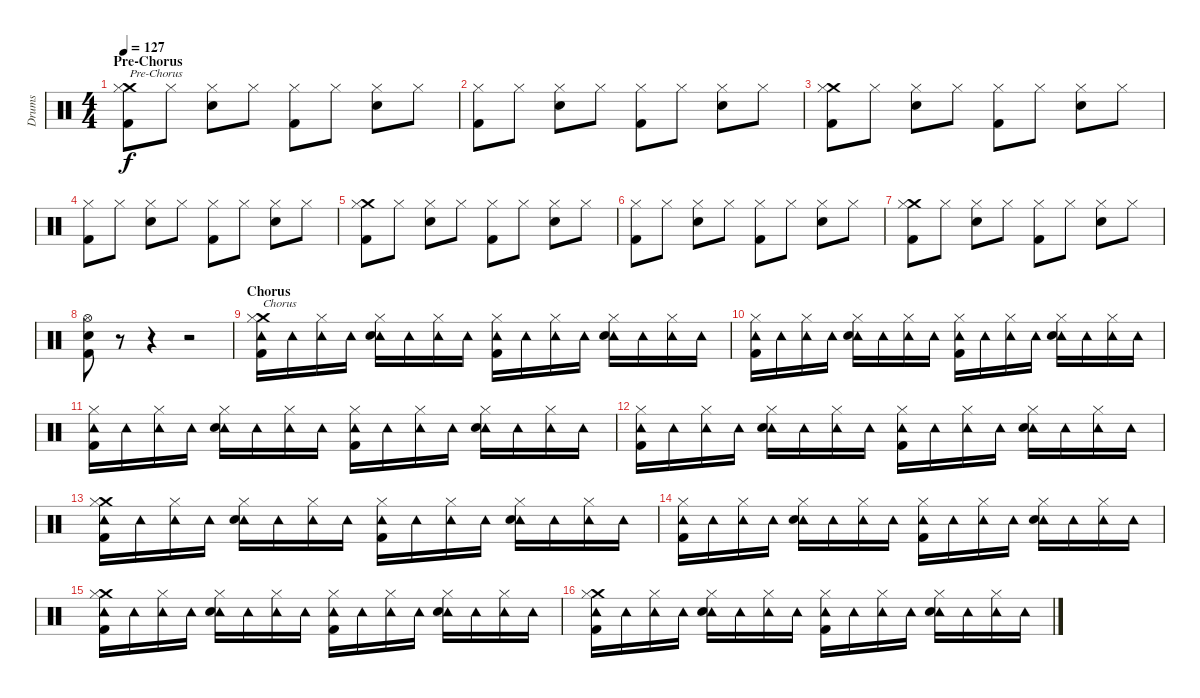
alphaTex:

\track ("Drums" "Drums") {instrument percussion}
\staff {score}
\articulation defaults
\ts (4 4)
\section ("" "Pre-Chorus")
\tempo 127
\clef neutral
\ks c
("Crash medium (hit)" "Hi-Hat (closed)" "Kick (hit) 2").8{txt "Pre-Chorus" dy f} "Hi-Hat (closed)".8 ("Hi-Hat (closed)" "Snare (hit) 2").8 "Hi-Hat (closed)".8 ("Hi-Hat (closed)" "Kick (hit) 2").8 "Hi-Hat (closed)".8 ("Hi-Hat (closed)" "Snare (hit) 2").8 "Hi-Hat (closed)".8 |
("Hi-Hat (closed)" "Kick (hit) 2").8 "Hi-Hat (closed)".8 ("Hi-Hat (closed)" "Snare (hit) 2").8 "Hi-Hat (closed)".8 ("Hi-Hat (closed)" "Kick (hit) 2").8 "Hi-Hat (closed)".8 ("Hi-Hat (closed)" "Snare (hit) 2").8 "Hi-Hat (closed)".8 |
("Crash medium (hit)" "Hi-Hat (closed)" "Kick (hit) 2").8 "Hi-Hat (closed)".8 ("Hi-Hat (closed)" "Snare (hit) 2").8 "Hi-Hat (closed)".8 ("Hi-Hat (closed)" "Kick (hit) 2").8 "Hi-Hat (closed)".8 ("Hi-Hat (closed)" "Snare (hit) 2").8 "Hi-Hat (closed)".8 |
("Hi-Hat (closed)" "Kick (hit) 2").8 "Hi-Hat (closed)".8 ("Hi-Hat (closed)" "Snare (hit) 2").8 "Hi-Hat (closed)".8 ("Hi-Hat (closed)" "Kick (hit) 2").8 "Hi-Hat (closed)".8 ("Hi-Hat (closed)" "Snare (hit) 2").8 "Hi-Hat (closed)".8 |
("Crash medium (hit)" "Hi-Hat (closed)" "Kick (hit) 2").8 "Hi-Hat (closed)".8 ("Hi-Hat (closed)" "Snare (hit) 2").8 "Hi-Hat (closed)".8 ("Hi-Hat (closed)" "Kick (hit) 2").8 "Hi-Hat (closed)".8 ("Hi-Hat (closed)" "Snare (hit) 2").8 "Hi-Hat (closed)".8 |
("Hi-Hat (closed)" "Kick (hit) 2").8 "Hi-Hat (closed)".8 ("Hi-Hat (closed)" "Snare (hit) 2").8 "Hi-Hat (closed)".8 ("Hi-Hat (closed)" "Kick (hit) 2").8 "Hi-Hat (closed)".8 ("Hi-Hat (closed)" "Snare (hit) 2").8 "Hi-Hat (closed)".8 |
("Crash medium (hit)" "Hi-Hat (closed)" "Kick (hit) 2").8 "Hi-Hat (closed)".8 ("Hi-Hat (closed)" "Snare (hit) 2").8 "Hi-Hat (closed)".8 ("Hi-Hat (closed)" "Kick (hit) 2").8 "Hi-Hat (closed)".8 ("Hi-Hat (closed)" "Snare (hit) 2").8 "Hi-Hat (closed)".8 |
("Hi-Hat (open)" "Snare (hit) 2" "Kick (hit) 2").8 r.8 r.4 r.2 |
\section ("" "Chorus")
("Crash medium (hit)" "Tambourine (hit)" "Hi-Hat (closed)" "Kick (hit) 2").16{txt "Chorus"} "Tambourine (hit)".16 ("Tambourine (hit)" "Hi-Hat (closed)").16 "Tambourine (hit)".16 ("Tambourine (hit)" "Hi-Hat (closed)" "Snare (hit) 2").16 "Tambourine (hit)".16 ("Tambourine (hit)" "Hi-Hat (closed)").16 "Tambourine (hit)".16 ("Tambourine (hit)" "Hi-Hat (closed)" "Kick (hit) 2").16 "Tambourine (hit)".16 ("Tambourine (hit)" "Hi-Hat (closed)").16 "Tambourine (hit)".16 ("Tambourine (hit)" "Hi-Hat (closed)" "Snare (hit) 2").16 "Tambourine (hit)".16 ("Tambourine (hit)" "Hi-Hat (closed)").16 "Tambourine (hit)".16 |
("Tambourine (hit)" "Hi-Hat (closed)" "Kick (hit) 2").16 "Tambourine (hit)".16 ("Tambourine (hit)" "Hi-Hat (closed)").16 "Tambourine (hit)".16 ("Tambourine (hit)" "Hi-Hat (closed)" "Snare (hit) 2").16 "Tambourine (hit)".16 ("Tambourine (hit)" "Hi-Hat (closed)").16 "Tambourine (hit)".16 ("Tambourine (hit)" "Hi-Hat (closed)" "Kick (hit) 2").16 "Tambourine (hit)".16 ("Tambourine (hit)" "Hi-Hat (closed)").16 "Tambourine (hit)".16 ("Tambourine (hit)" "Hi-Hat (closed)" "Snare (hit) 2").16 "Tambourine (hit)".16 ("Tambourine (hit)" "Hi-Hat (closed)").16 "Tambourine (hit)".16 |
("Tambourine (hit)" "Hi-Hat (closed)" "Kick (hit) 2").16 "Tambourine (hit)".16 ("Tambourine (hit)" "Hi-Hat (closed)").16 "Tambourine (hit)".16 ("Tambourine (hit)" "Hi-Hat (closed)" "Snare (hit) 2").16 "Tambourine (hit)".16 ("Tambourine (hit)" "Hi-Hat (closed)").16 "Tambourine (hit)".16 ("Tambourine (hit)" "Hi-Hat (closed)" "Kick (hit) 2").16 "Tambourine (hit)".16 ("Tambourine (hit)" "Hi-Hat (closed)").16 "Tambourine (hit)".16 ("Tambourine (hit)" "Hi-Hat (closed)" "Snare (hit) 2").16 "Tambourine (hit)".16 ("Tambourine (hit)" "Hi-Hat (closed)").16 "Tambourine (hit)".16 |
("Tambourine (hit)" "Hi-Hat (closed)" "Kick (hit) 2").16 "Tambourine (hit)".16 ("Tambourine (hit)" "Hi-Hat (closed)").16 "Tambourine (hit)".16 ("Tambourine (hit)" "Hi-Hat (closed)" "Snare (hit) 2").16 "Tambourine (hit)".16 ("Tambourine (hit)" "Hi-Hat (closed)").16 "Tambourine (hit)".16 ("Tambourine (hit)" "Hi-Hat (closed)" "Kick (hit) 2").16 "Tambourine (hit)".16 ("Tambourine (hit)" "Hi-Hat (closed)").16 "Tambourine (hit)".16 ("Tambourine (hit)" "Hi-Hat (closed)" "Snare (hit) 2").16 "Tambourine (hit)".16 ("Tambourine (hit)" "Hi-Hat (closed)").16 "Tambourine (hit)".16 |
("Crash medium (hit)" "Tambourine (hit)" "Hi-Hat (closed)" "Kick (hit) 2").16 "Tambourine (hit)".16 ("Tambourine (hit)" "Hi-Hat (closed)").16 "Tambourine (hit)".16 ("Tambourine (hit)" "Hi-Hat (closed)" "Snare (hit) 2").16 "Tambourine (hit)".16 ("Tambourine (hit)" "Hi-Hat (closed)").16 "Tambourine (hit)".16 ("Tambourine (hit)" "Hi-Hat (closed)" "Kick (hit) 2").16 "Tambourine (hit)".16 ("Tambourine (hit)" "Hi-Hat (closed)").16 "Tambourine (hit)".16 ("Tambourine (hit)" "Hi-Hat (closed)" "Snare (hit) 2").16 "Tambourine (hit)".16 ("Tambourine (hit)" "Hi-Hat (closed)").16 "Tambourine (hit)".16 |
("Tambourine (hit)" "Hi-Hat (closed)" "Kick (hit) 2").16 "Tambourine (hit)".16 ("Tambourine (hit)" "Hi-Hat (closed)").16 "Tambourine (hit)".16 ("Tambourine (hit)" "Hi-Hat (closed)" "Snare (hit) 2").16 "Tambourine (hit)".16 ("Tambourine (hit)" "Hi-Hat (closed)").16 "Tambourine (hit)".16 ("Tambourine (hit)" "Hi-Hat (closed)" "Kick (hit) 2").16 "Tambourine (hit)".16 ("Tambourine (hit)" "Hi-Hat (closed)").16 "Tambourine (hit)".16 ("Tambourine (hit)" "Hi-Hat (closed)" "Snare (hit) 2").16 "Tambourine (hit)".16 ("Tambourine (hit)" "Hi-Hat (closed)").16 "Tambourine (hit)".16 |
("Crash medium (hit)" "Tambourine (hit)" "Hi-Hat (closed)" "Kick (hit) 2").16 "Tambourine (hit)".16 ("Tambourine (hit)" "Hi-Hat (closed)").16 "Tambourine (hit)".16 ("Tambourine (hit)" "Hi-Hat (closed)" "Snare (hit) 2").16 "Tambourine (hit)".16 ("Tambourine (hit)" "Hi-Hat (closed)").16 "Tambourine (hit)".16 ("Tambourine (hit)" "Hi-Hat (closed)" "Kick (hit) 2").16 "Tambourine (hit)".16 ("Tambourine (hit)" "Hi-Hat (closed)").16 "Tambourine (hit)".16 ("Tambourine (hit)" "Hi-Hat (closed)" "Snare (hit) 2").16 "Tambourine (hit)".16 ("Tambourine (hit)" "Hi-Hat (closed)").16 "Tambourine (hit)".16 |
("Crash medium (hit)" "Tambourine (hit)" "Hi-Hat (closed)" "Kick (hit) 2").16 "Tambourine (hit)".16 ("Tambourine (hit)" "Hi-Hat (closed)").16 "Tambourine (hit)".16 ("Tambourine (hit)" "Hi-Hat (closed)" "Snare (hit) 2").16 "Tambourine (hit)".16 ("Tambourine (hit)" "Hi-Hat (closed)").16 "Tambourine (hit)".16 ("Tambourine (hit)" "Hi-Hat (closed)" "Kick (hit) 2").16 "Tambourine (hit)".16 ("Tambourine (hit)" "Hi-Hat (closed)").16 "Tambourine (hit)".16 ("Tambourine (hit)" "Hi-Hat (closed)" "Snare (hit) 2").16 "Tambourine (hit)".16 ("Tambourine (hit)" "Hi-Hat (closed)").16 "Tambourine (hit)".16
